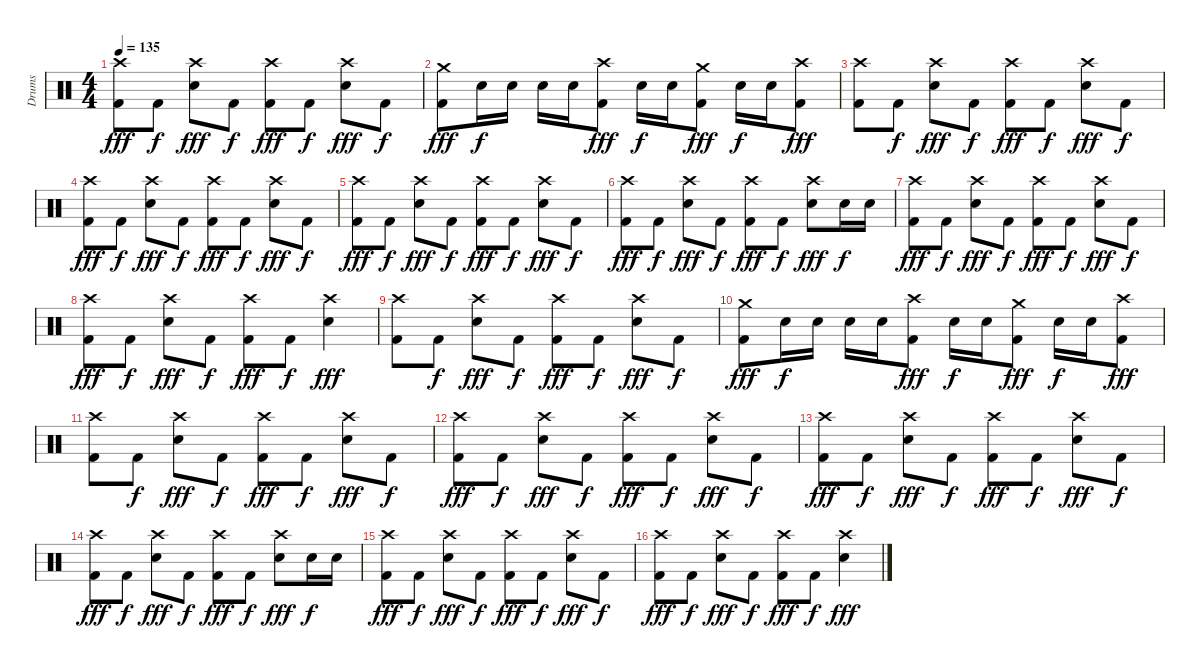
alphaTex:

\track ("Drums" "Drums") {instrument percussion}
\staff {score}
\articulation defaults
\ts (4 4)
\tempo 135
\clef neutral
\ks c
("Crash high (hit)" "Kick (hit) 2").8{dy fff} "Kick (hit) 2".8{dy f} ("Crash high (hit)" "Snare (hit) 2").8{dy fff} "Kick (hit) 2".8{dy f} ("Crash high (hit)" "Kick (hit) 2").8{dy fff} "Kick (hit) 2".8{dy f} ("Crash high (hit)" "Snare (hit) 2").8{dy fff} "Kick (hit) 2".8{dy f} |
("Crash medium (hit)" "Kick (hit) 2").8{dy fff} "Snare (hit) 2".16{dy f} "Snare (hit) 2".16 "Snare (hit) 2".16 "Snare (hit) 2".16 ("Crash high (hit)" "Kick (hit) 2").8{dy fff} "Snare (hit) 2".16{dy f} "Snare (hit) 2".16 ("Crash medium (hit)" "Kick (hit) 2").8{dy fff} "Snare (hit) 2".16{dy f} "Snare (hit) 2".16 ("Crash high (hit)" "Kick (hit) 2").8{dy fff} |
("Crash high (hit)" "Kick (hit) 2").8 "Kick (hit) 2".8{dy f} ("Crash high (hit)" "Snare (hit) 2").8{dy fff} "Kick (hit) 2".8{dy f} ("Crash high (hit)" "Kick (hit) 2").8{dy fff} "Kick (hit) 2".8{dy f} ("Crash high (hit)" "Snare (hit) 2").8{dy fff} "Kick (hit) 2".8{dy f} |
("Crash high (hit)" "Kick (hit) 2").8{dy fff} "Kick (hit) 2".8{dy f} ("Crash high (hit)" "Snare (hit) 2").8{dy fff} "Kick (hit) 2".8{dy f} ("Crash high (hit)" "Kick (hit) 2").8{dy fff} "Kick (hit) 2".8{dy f} ("Crash high (hit)" "Snare (hit) 2").8{dy fff} "Kick (hit) 2".8{dy f} |
("Crash high (hit)" "Kick (hit) 2").8{dy fff} "Kick (hit) 2".8{dy f} ("Crash high (hit)" "Snare (hit) 2").8{dy fff} "Kick (hit) 2".8{dy f} ("Crash high (hit)" "Kick (hit) 2").8{dy fff} "Kick (hit) 2".8{dy f} ("Crash high (hit)" "Snare (hit) 2").8{dy fff} "Kick (hit) 2".8{dy f} |
("Crash high (hit)" "Kick (hit) 2").8{dy fff} "Kick (hit) 2".8{dy f} ("Crash high (hit)" "Snare (hit) 2").8{dy fff} "Kick (hit) 2".8{dy f} ("Crash high (hit)" "Kick (hit) 2").8{dy fff} "Kick (hit) 2".8{dy f} ("Crash high (hit)" "Snare (hit) 2").8{dy fff} "Snare (hit) 2".16{dy f} "Snare (hit) 2".16 |
("Crash high (hit)" "Kick (hit) 2").8{dy fff} "Kick (hit) 2".8{dy f} ("Crash high (hit)" "Snare (hit) 2").8{dy fff} "Kick (hit) 2".8{dy f} ("Crash high (hit)" "Kick (hit) 2").8{dy fff} "Kick (hit) 2".8{dy f} ("Crash high (hit)" "Snare (hit) 2").8{dy fff} "Kick (hit) 2".8{dy f} |
("Crash high (hit)" "Kick (hit) 2").8{dy fff} "Kick (hit) 2".8{dy f} ("Crash high (hit)" "Snare (hit) 2").8{dy fff} "Kick (hit) 2".8{dy f} ("Crash high (hit)" "Kick (hit) 2").8{dy fff} "Kick (hit) 2".8{dy f} ("Crash high (hit)" "Snare (hit) 2").4{dy fff} |
("Crash high (hit)" "Kick (hit) 2").8 "Kick (hit) 2".8{dy f} ("Crash high (hit)" "Snare (hit) 2").8{dy fff} "Kick (hit) 2".8{dy f} ("Crash high (hit)" "Kick (hit) 2").8{dy fff} "Kick (hit) 2".8{dy f} ("Crash high (hit)" "Snare (hit) 2").8{dy fff} "Kick (hit) 2".8{dy f} |
("Crash medium (hit)" "Kick (hit) 2").8{dy fff} "Snare (hit) 2".16{dy f} "Snare (hit) 2".16 "Snare (hit) 2".16 "Snare (hit) 2".16 ("Crash high (hit)" "Kick (hit) 2").8{dy fff} "Snare (hit) 2".16{dy f} "Snare (hit) 2".16 ("Crash medium (hit)" "Kick (hit) 2").8{dy fff} "Snare (hit) 2".16{dy f} "Snare (hit) 2".16 ("Crash high (hit)" "Kick (hit) 2").8{dy fff} |
("Crash high (hit)" "Kick (hit) 2").8 "Kick (hit) 2".8{dy f} ("Crash high (hit)" "Snare (hit) 2").8{dy fff} "Kick (hit) 2".8{dy f} ("Crash high (hit)" "Kick (hit) 2").8{dy fff} "Kick (hit) 2".8{dy f} ("Crash high (hit)" "Snare (hit) 2").8{dy fff} "Kick (hit) 2".8{dy f} |
("Crash high (hit)" "Kick (hit) 2").8{dy fff} "Kick (hit) 2".8{dy f} ("Crash high (hit)" "Snare (hit) 2").8{dy fff} "Kick (hit) 2".8{dy f} ("Crash high (hit)" "Kick (hit) 2").8{dy fff} "Kick (hit) 2".8{dy f} ("Crash high (hit)" "Snare (hit) 2").8{dy fff} "Kick (hit) 2".8{dy f} |
("Crash high (hit)" "Kick (hit) 2").8{dy fff} "Kick (hit) 2".8{dy f} ("Crash high (hit)" "Snare (hit) 2").8{dy fff} "Kick (hit) 2".8{dy f} ("Crash high (hit)" "Kick (hit) 2").8{dy fff} "Kick (hit) 2".8{dy f} ("Crash high (hit)" "Snare (hit) 2").8{dy fff} "Kick (hit) 2".8{dy f} |
("Crash high (hit)" "Kick (hit) 2").8{dy fff} "Kick (hit) 2".8{dy f} ("Crash high (hit)" "Snare (hit) 2").8{dy fff} "Kick (hit) 2".8{dy f} ("Crash high (hit)" "Kick (hit) 2").8{dy fff} "Kick (hit) 2".8{dy f} ("Crash high (hit)" "Snare (hit) 2").8{dy fff} "Snare (hit) 2".16{dy f} "Snare (hit) 2".16 |
("Crash high (hit)" "Kick (hit) 2").8{dy fff} "Kick (hit) 2".8{dy f} ("Crash high (hit)" "Snare (hit) 2").8{dy fff} "Kick (hit) 2".8{dy f} ("Crash high (hit)" "Kick (hit) 2").8{dy fff} "Kick (hit) 2".8{dy f} ("Crash high (hit)" "Snare (hit) 2").8{dy fff} "Kick (hit) 2".8{dy f} |
("Crash high (hit)" "Kick (hit) 2").8{dy fff} "Kick (hit) 2".8{dy f} ("Crash high (hit)" "Snare (hit) 2").8{dy fff} "Kick (hit) 2".8{dy f} ("Crash high (hit)" "Kick (hit) 2").8{dy fff} "Kick (hit) 2".8{dy f} ("Crash high (hit)" "Snare (hit) 2").4{dy fff}
